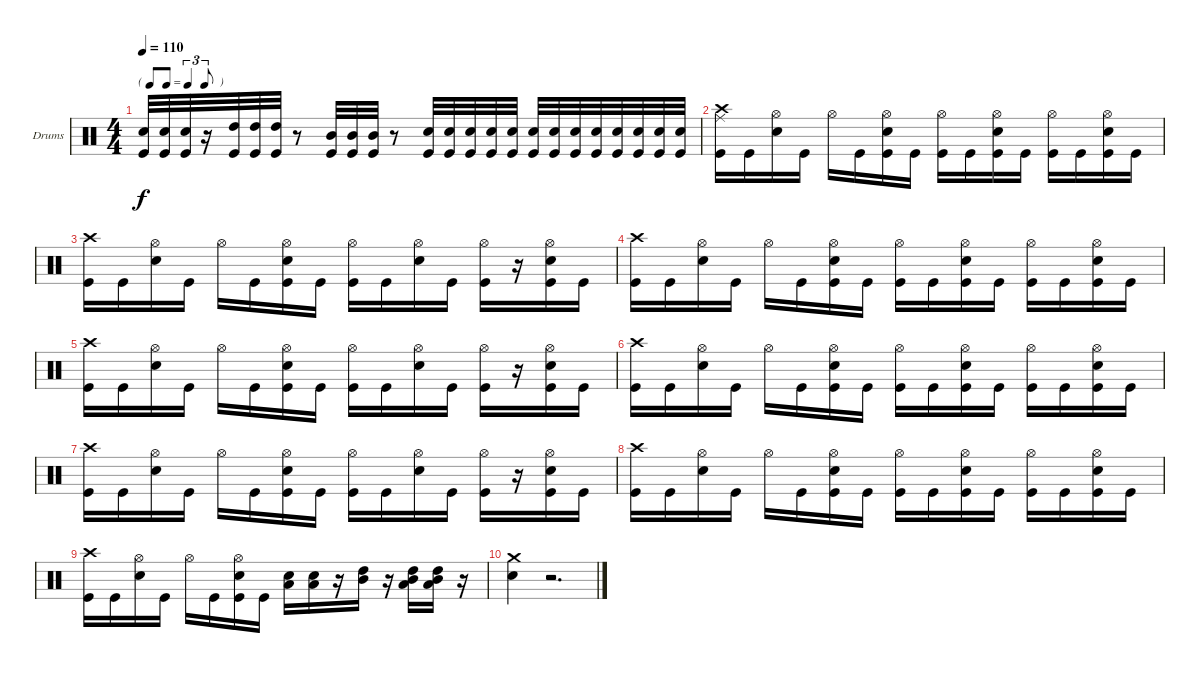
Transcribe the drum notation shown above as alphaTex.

\bracketExtendMode groupsimilarinstruments
\firstSystemTrackNameOrientation horizontal
\otherSystemsTrackNameOrientation horizontal
\track ("Drumkit" "Drums") {instrument percussion}
\staff {score}
\articulation defaults
\ts (4 4)
\tf triplet8th
\tempo 110
\clef neutral
\ks c
("Snare (hit) 2" "Kick (hit)").32{dy f} ("Snare (hit) 2" "Kick (hit)").32 ("Snare (hit) 2" "Kick (hit)").32 r.16 ("Kick (hit)" "High Tom (hit)").32 ("Kick (hit)" "High Tom (hit)").32 ("Kick (hit)" "High Tom (hit)").32 r.8 ("Mid Tom (hit)" "Kick (hit)").32 ("Mid Tom (hit)" "Kick (hit)").32 ("Mid Tom (hit)" "Kick (hit)").32 r.8 ("Kick (hit)" "Snare (hit) 2").32 ("Kick (hit)" "Snare (hit) 2").32 ("Kick (hit)" "Snare (hit) 2").32 ("Kick (hit)" "Snare (hit) 2").32 ("Kick (hit)" "Snare (hit) 2").32 ("Kick (hit)" "Snare (hit) 2").32 ("Snare (hit) 2" "Kick (hit)").32 ("Snare (hit) 2" "Kick (hit)").32 ("Snare (hit) 2" "Kick (hit)").32 ("Snare (hit) 2" "Kick (hit)").32 ("Snare (hit) 2" "Kick (hit)").32 ("Snare (hit) 2" "Kick (hit)").32 ("Snare (hit) 2" "Kick (hit)").32 |
("Crash high (hit)" "Kick (hit)" "Ride (middle)").16 "Kick (hit)".16 ("Hi-Hat (open)" "Snare (hit) 2").16 "Kick (hit)".16 "Hi-Hat (open)".16 "Kick (hit)".16 ("Hi-Hat (open)" "Snare (hit) 2" "Kick (hit)").16 "Kick (hit)".16 ("Hi-Hat (open)" "Kick (hit)").16 "Kick (hit)".16 ("Hi-Hat (open)" "Snare (hit) 2" "Kick (hit)").16 "Kick (hit)".16 ("Hi-Hat (open)" "Kick (hit)").16 "Kick (hit)".16 ("Hi-Hat (open)" "Snare (hit) 2" "Kick (hit)").16 "Kick (hit)".16 |
("Crash high (hit)" "Kick (hit)").16 "Kick (hit)".16 ("Hi-Hat (open)" "Snare (hit) 2").16 "Kick (hit)".16 "Hi-Hat (open)".16 "Kick (hit)".16 ("Hi-Hat (open)" "Snare (hit) 2" "Kick (hit)").16 "Kick (hit)".16 ("Hi-Hat (open)" "Kick (hit)").16 "Kick (hit)".16 ("Hi-Hat (open)" "Snare (hit) 2").16 "Kick (hit)".16 ("Hi-Hat (open)" "Kick (hit)").16 r.16 ("Hi-Hat (open)" "Snare (hit) 2" "Kick (hit)").16 "Kick (hit)".16 |
("Crash high (hit)" "Kick (hit)").16 "Kick (hit)".16 ("Hi-Hat (open)" "Snare (hit) 2").16 "Kick (hit)".16 "Hi-Hat (open)".16 "Kick (hit)".16 ("Hi-Hat (open)" "Snare (hit) 2" "Kick (hit)").16 "Kick (hit)".16 ("Hi-Hat (open)" "Kick (hit)").16 "Kick (hit)".16 ("Hi-Hat (open)" "Snare (hit) 2" "Kick (hit)").16 "Kick (hit)".16 ("Hi-Hat (open)" "Kick (hit)").16 "Kick (hit)".16 ("Hi-Hat (open)" "Snare (hit) 2" "Kick (hit)").16 "Kick (hit)".16 |
("Crash high (hit)" "Kick (hit)").16 "Kick (hit)".16 ("Hi-Hat (open)" "Snare (hit) 2").16 "Kick (hit)".16 "Hi-Hat (open)".16 "Kick (hit)".16 ("Hi-Hat (open)" "Snare (hit) 2" "Kick (hit)").16 "Kick (hit)".16 ("Hi-Hat (open)" "Kick (hit)").16 "Kick (hit)".16 ("Hi-Hat (open)" "Snare (hit) 2").16 "Kick (hit)".16 ("Hi-Hat (open)" "Kick (hit)").16 r.16 ("Hi-Hat (open)" "Snare (hit) 2" "Kick (hit)").16 "Kick (hit)".16 |
("Crash high (hit)" "Kick (hit)").16 "Kick (hit)".16 ("Hi-Hat (open)" "Snare (hit) 2").16 "Kick (hit)".16 "Hi-Hat (open)".16 "Kick (hit)".16 ("Hi-Hat (open)" "Snare (hit) 2" "Kick (hit)").16 "Kick (hit)".16 ("Hi-Hat (open)" "Kick (hit)").16 "Kick (hit)".16 ("Hi-Hat (open)" "Snare (hit) 2" "Kick (hit)").16 "Kick (hit)".16 ("Hi-Hat (open)" "Kick (hit)").16 "Kick (hit)".16 ("Hi-Hat (open)" "Snare (hit) 2" "Kick (hit)").16 "Kick (hit)".16 |
("Crash high (hit)" "Kick (hit)").16 "Kick (hit)".16 ("Hi-Hat (open)" "Snare (hit) 2").16 "Kick (hit)".16 "Hi-Hat (open)".16 "Kick (hit)".16 ("Hi-Hat (open)" "Snare (hit) 2" "Kick (hit)").16 "Kick (hit)".16 ("Hi-Hat (open)" "Kick (hit)").16 "Kick (hit)".16 ("Hi-Hat (open)" "Snare (hit) 2").16 "Kick (hit)".16 ("Hi-Hat (open)" "Kick (hit)").16 r.16 ("Hi-Hat (open)" "Snare (hit) 2" "Kick (hit)").16 "Kick (hit)".16 |
("Crash high (hit)" "Kick (hit)").16 "Kick (hit)".16 ("Hi-Hat (open)" "Snare (hit) 2").16 "Kick (hit)".16 "Hi-Hat (open)".16 "Kick (hit)".16 ("Hi-Hat (open)" "Snare (hit) 2" "Kick (hit)").16 "Kick (hit)".16 ("Hi-Hat (open)" "Kick (hit)").16 "Kick (hit)".16 ("Hi-Hat (open)" "Snare (hit) 2" "Kick (hit)").16 "Kick (hit)".16 ("Hi-Hat (open)" "Kick (hit)").16 "Kick (hit)".16 ("Hi-Hat (open)" "Snare (hit) 2" "Kick (hit)").16 "Kick (hit)".16 |
("Crash high (hit)" "Kick (hit)").16 "Kick (hit)".16 ("Hi-Hat (open)" "Snare (hit) 2").16 "Kick (hit)".16 "Hi-Hat (open)".16 "Kick (hit)".16 ("Hi-Hat (open)" "Snare (hit) 2" "Kick (hit)").16 "Kick (hit)".16 ("Low Tom (hit)" "Snare (hit) 2").16 ("Low Tom (hit)" "Snare (hit) 2").16 r.16 ("Mid Tom (hit)" "High Tom (hit)").16 r.16 ("Mid Tom (hit)" "High Tom (hit)" "Low Tom (hit)").16 ("Mid Tom (hit)" "High Tom (hit)" "Low Tom (hit)").16 r.16 |
("Snare (hit) 2" "Crash medium (hit)").4 r.2{d}
